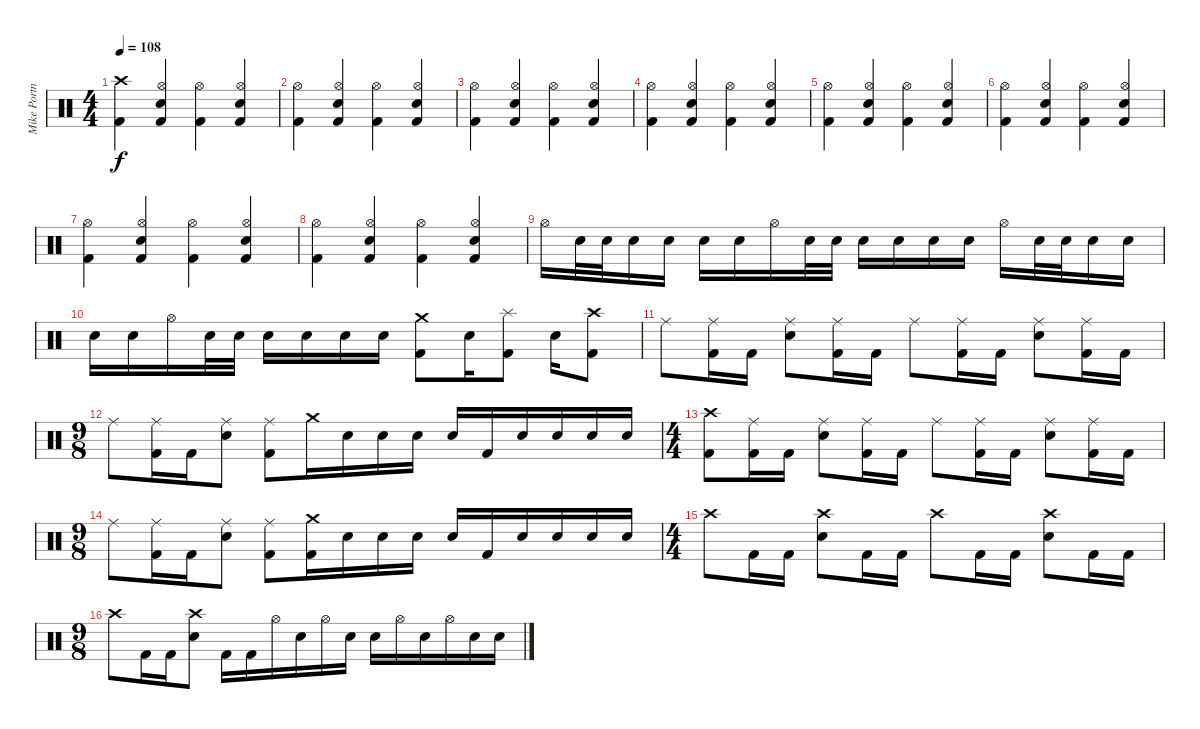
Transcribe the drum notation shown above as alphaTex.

\track ("Mike Portnoy" "Mike Portn") {instrument percussion}
\staff {score}
\articulation defaults
\ts (4 4)
\tempo 108
\clef neutral
\ks c
("Crash high (hit)" "Kick (hit) 2").4{dy f} ("Hi-Hat (open)" "Electric Snare (hit)" "Kick (hit) 2").4 ("Hi-Hat (open)" "Kick (hit) 2").4 ("Hi-Hat (open)" "Electric Snare (hit)" "Kick (hit) 2").4 |
("Hi-Hat (open)" "Kick (hit) 2").4 ("Hi-Hat (open)" "Electric Snare (hit)" "Kick (hit) 2").4 ("Hi-Hat (open)" "Kick (hit) 2").4 ("Hi-Hat (open)" "Electric Snare (hit)" "Kick (hit) 2").4 |
("Hi-Hat (open)" "Kick (hit) 2").4 ("Hi-Hat (open)" "Electric Snare (hit)" "Kick (hit) 2").4 ("Hi-Hat (open)" "Kick (hit) 2").4 ("Hi-Hat (open)" "Electric Snare (hit)" "Kick (hit) 2").4 |
("Hi-Hat (open)" "Kick (hit) 2").4 ("Hi-Hat (open)" "Electric Snare (hit)" "Kick (hit) 2").4 ("Hi-Hat (open)" "Kick (hit) 2").4 ("Hi-Hat (open)" "Electric Snare (hit)" "Kick (hit) 2").4 |
("Hi-Hat (open)" "Kick (hit) 2").4 ("Hi-Hat (open)" "Electric Snare (hit)" "Kick (hit) 2").4 ("Hi-Hat (open)" "Kick (hit) 2").4 ("Hi-Hat (open)" "Electric Snare (hit)" "Kick (hit) 2").4 |
("Hi-Hat (open)" "Kick (hit) 2").4 ("Hi-Hat (open)" "Electric Snare (hit)" "Kick (hit) 2").4 ("Hi-Hat (open)" "Kick (hit) 2").4 ("Hi-Hat (open)" "Electric Snare (hit)" "Kick (hit) 2").4 |
("Hi-Hat (open)" "Kick (hit) 2").4 ("Hi-Hat (open)" "Electric Snare (hit)" "Kick (hit) 2").4 ("Hi-Hat (open)" "Kick (hit) 2").4 ("Hi-Hat (open)" "Electric Snare (hit)" "Kick (hit) 2").4 |
("Hi-Hat (open)" "Kick (hit) 2").4 ("Hi-Hat (open)" "Electric Snare (hit)" "Kick (hit) 2").4 ("Hi-Hat (open)" "Kick (hit) 2").4 ("Hi-Hat (open)" "Electric Snare (hit)" "Kick (hit) 2").4 |
"Hi-Hat (open)".16 "Snare (hit) 2".32 "Snare (hit) 2".32 "Snare (hit) 2".16 "Snare (hit) 2".16 "Snare (hit) 2".16 "Snare (hit) 2".16 "Hi-Hat (open)".16 "Snare (hit) 2".32 "Snare (hit) 2".32 "Snare (hit) 2".16 "Snare (hit) 2".16 "Snare (hit) 2".16 "Snare (hit) 2".16 "Hi-Hat (open)".16 "Snare (hit) 2".32 "Snare (hit) 2".32 "Snare (hit) 2".16 "Snare (hit) 2".16 |
"Snare (hit) 2".16 "Snare (hit) 2".16 "Hi-Hat (open)".16 "Snare (hit) 2".32 "Snare (hit) 2".32 "Snare (hit) 2".16 "Snare (hit) 2".16 "Snare (hit) 2".16 "Snare (hit) 2".16 ("Crash medium (hit)" "Kick (hit) 2").8 "Snare (hit) 2".16 ("Splash (hit)" "Kick (hit) 2").8 "Snare (hit) 2".16 ("Crash high (hit)" "Kick (hit) 2").8 |
"Ride (middle)".8 ("Ride (middle)" "Kick (hit) 2").16 "Kick (hit) 2".16 ("Ride (middle)" "Snare (hit) 2").8 ("Ride (middle)" "Kick (hit) 2").16 "Kick (hit) 2".16 "Ride (middle)".8 ("Ride (middle)" "Kick (hit) 2").16 "Kick (hit) 2".16 ("Ride (middle)" "Snare (hit) 2").8 ("Ride (middle)" "Kick (hit) 2").16 "Kick (hit) 2".16 |
\ts (9 8)
"Ride (middle)".8 ("Ride (middle)" "Kick (hit) 2").16 "Kick (hit) 2".16 ("Ride (middle)" "Snare (hit) 2").8 ("Ride (middle)" "Kick (hit) 2").8 "Crash medium (hit)".16 "Snare (hit) 2".16 "Snare (hit) 2".16 "Snare (hit) 2".16 "Snare (hit) 2".16 "Kick (hit) 2".16 "Snare (hit) 2".16 "Snare (hit) 2".16 "Snare (hit) 2".16 "Snare (hit) 2".16 |
\ts (4 4)
("Crash high (hit)" "Kick (hit) 2").8 ("Ride (middle)" "Kick (hit) 2").16 "Kick (hit) 2".16 ("Ride (middle)" "Snare (hit) 2").8 ("Ride (middle)" "Kick (hit) 2").16 "Kick (hit) 2".16 "Ride (middle)".8 ("Ride (middle)" "Kick (hit) 2").16 "Kick (hit) 2".16 ("Ride (middle)" "Snare (hit) 2").8 ("Ride (middle)" "Kick (hit) 2").16 "Kick (hit) 2".16 |
\ts (9 8)
"Ride (middle)".8 ("Ride (middle)" "Kick (hit) 2").16 "Kick (hit) 2".16 ("Ride (middle)" "Snare (hit) 2").8 ("Ride (middle)" "Kick (hit) 2").8 ("Crash medium (hit)" "Kick (hit) 2").16 "Snare (hit) 2".16 "Snare (hit) 2".16 "Snare (hit) 2".16 "Snare (hit) 2".16 "Kick (hit) 2".16 "Snare (hit) 2".16 "Snare (hit) 2".16 "Snare (hit) 2".16 "Snare (hit) 2".16 |
\ts (4 4)
"Crash high (hit)".8 "Kick (hit) 2".16 "Kick (hit) 2".16 ("Crash high (hit)" "Snare (hit) 2").8 "Kick (hit) 2".16 "Kick (hit) 2".16 "Crash high (hit)".8 "Kick (hit) 2".16 "Kick (hit) 2".16 ("Crash high (hit)" "Snare (hit) 2").8 "Kick (hit) 2".16 "Kick (hit) 2".16 |
\ts (9 8)
"Crash high (hit)".8 "Kick (hit) 2".16 "Kick (hit) 2".16 ("Crash high (hit)" "Snare (hit) 2").8 "Kick (hit) 2".16 "Kick (hit) 2".16 "Hi-Hat (open)".16 "Snare (hit) 2".16 "Hi-Hat (open)".16 "Snare (hit) 2".16 "Snare (hit) 2".16 "Hi-Hat (open)".16 "Snare (hit) 2".16 "Hi-Hat (open)".16 "Snare (hit) 2".16 "Snare (hit) 2".16
